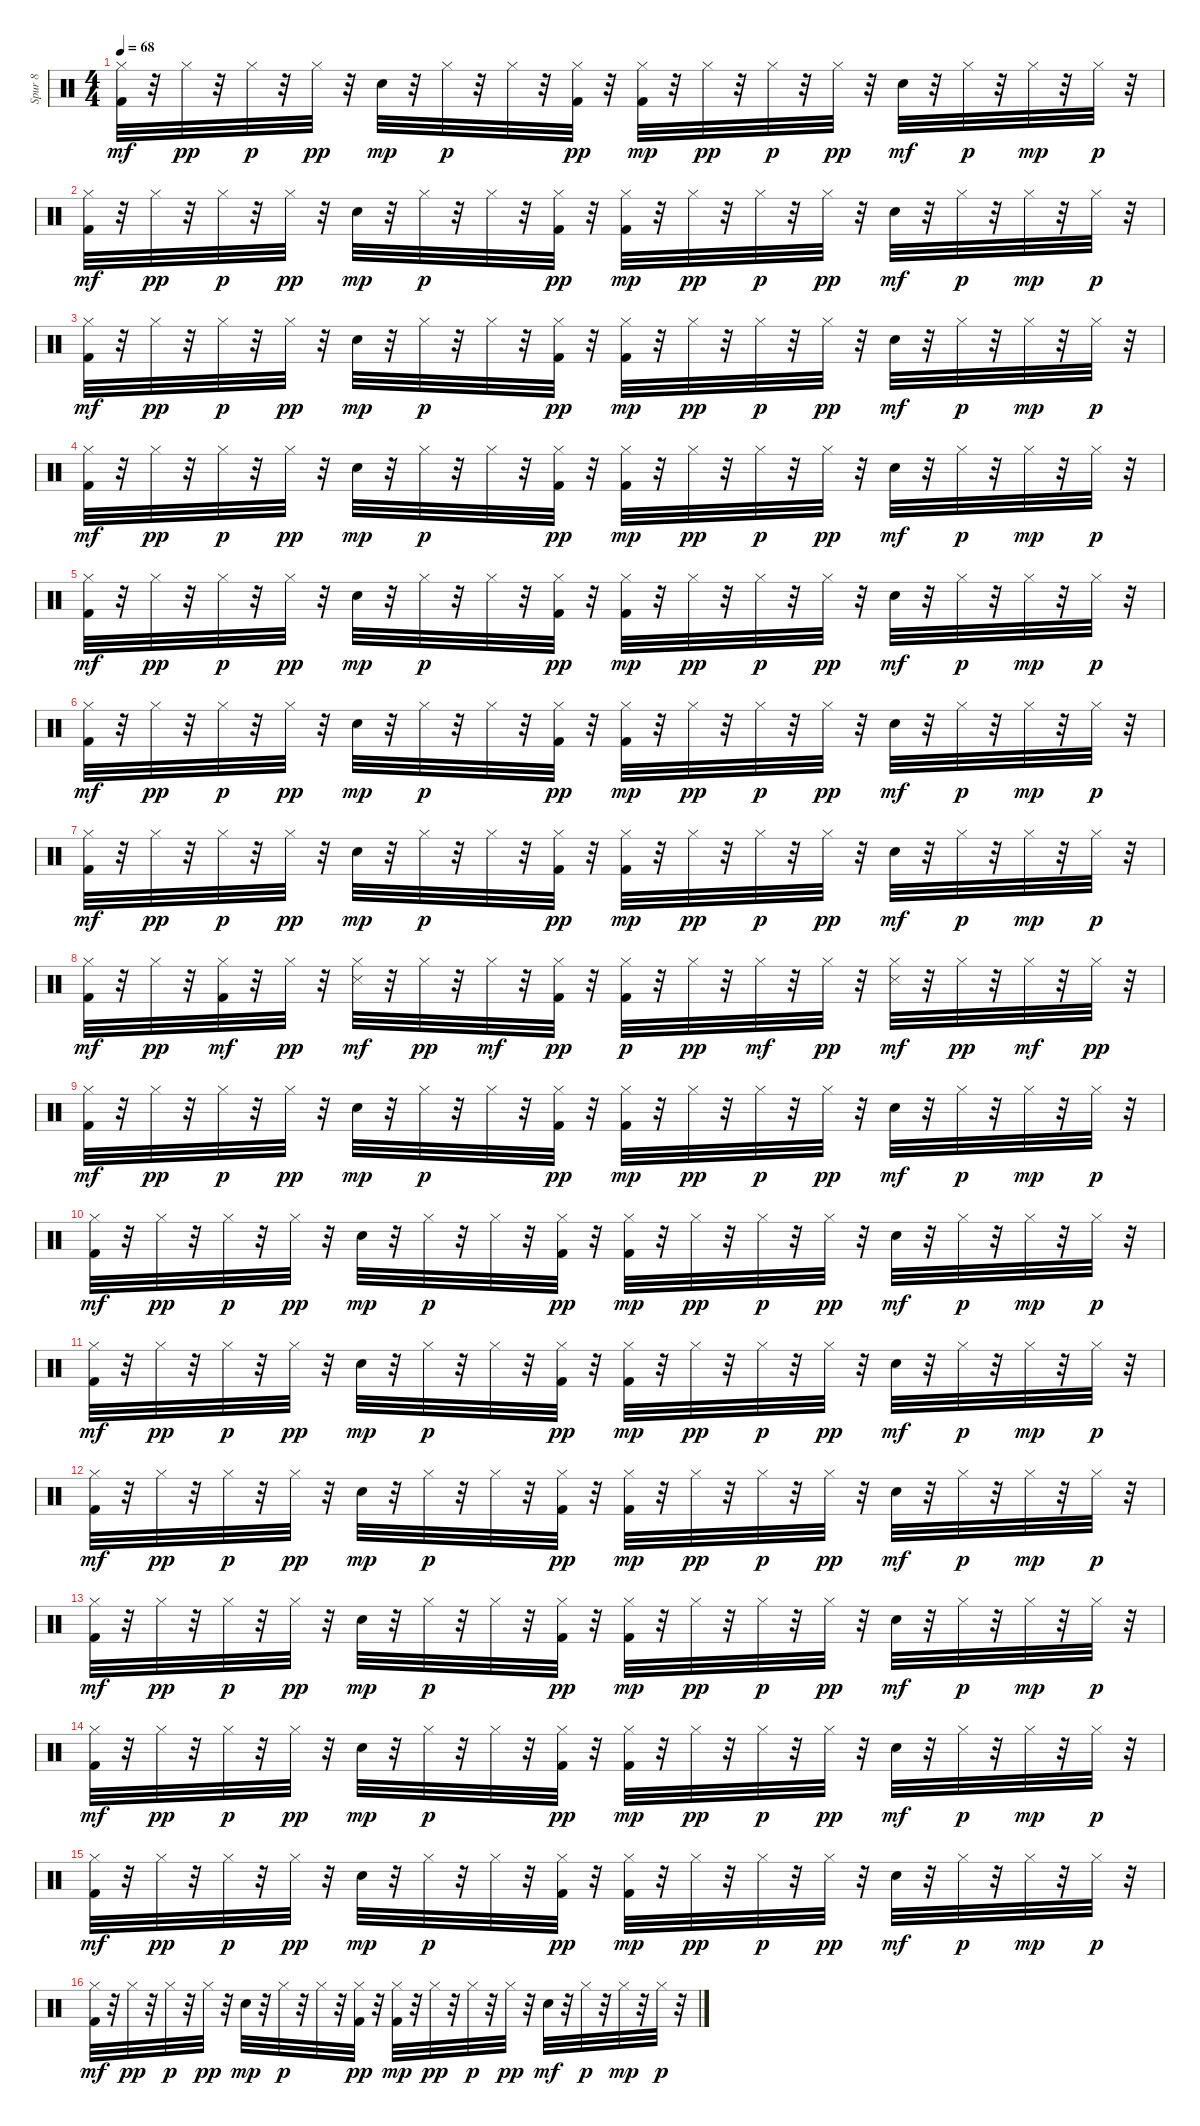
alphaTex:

\track ("Spur 8" "Spur 8") {instrument percussion}
\staff {score}
\articulation defaults
\ts (4 4)
\tempo 68
\clef neutral
\ks c
("Hi-Hat (closed)" "Kick (hit) 2").32{dy mf} r.32 "Hi-Hat (closed)".32{dy pp} r.32 "Hi-Hat (closed)".32{dy p} r.32 "Hi-Hat (closed)".32{dy pp} r.32 "Electric Snare (hit)".32{dy mp} r.32 "Hi-Hat (closed)".32{dy p} r.32 "Hi-Hat (closed)".32 r.32 ("Hi-Hat (closed)" "Kick (hit) 2").32{dy pp} r.32 ("Hi-Hat (closed)" "Kick (hit) 2").32{dy mp} r.32 "Hi-Hat (closed)".32{dy pp} r.32 "Hi-Hat (closed)".32{dy p} r.32 "Hi-Hat (closed)".32{dy pp} r.32 "Electric Snare (hit)".32{dy mf} r.32 "Hi-Hat (closed)".32{dy p} r.32 "Hi-Hat (closed)".32{dy mp} r.32 "Hi-Hat (closed)".32{dy p} r.32 |
("Hi-Hat (closed)" "Kick (hit) 2").32{dy mf} r.32 "Hi-Hat (closed)".32{dy pp} r.32 "Hi-Hat (closed)".32{dy p} r.32 "Hi-Hat (closed)".32{dy pp} r.32 "Electric Snare (hit)".32{dy mp} r.32 "Hi-Hat (closed)".32{dy p} r.32 "Hi-Hat (closed)".32 r.32 ("Hi-Hat (closed)" "Kick (hit) 2").32{dy pp} r.32 ("Hi-Hat (closed)" "Kick (hit) 2").32{dy mp} r.32 "Hi-Hat (closed)".32{dy pp} r.32 "Hi-Hat (closed)".32{dy p} r.32 "Hi-Hat (closed)".32{dy pp} r.32 "Electric Snare (hit)".32{dy mf} r.32 "Hi-Hat (closed)".32{dy p} r.32 "Hi-Hat (closed)".32{dy mp} r.32 "Hi-Hat (closed)".32{dy p} r.32 |
("Hi-Hat (closed)" "Kick (hit) 2").32{dy mf} r.32 "Hi-Hat (closed)".32{dy pp} r.32 "Hi-Hat (closed)".32{dy p} r.32 "Hi-Hat (closed)".32{dy pp} r.32 "Electric Snare (hit)".32{dy mp} r.32 "Hi-Hat (closed)".32{dy p} r.32 "Hi-Hat (closed)".32 r.32 ("Hi-Hat (closed)" "Kick (hit) 2").32{dy pp} r.32 ("Hi-Hat (closed)" "Kick (hit) 2").32{dy mp} r.32 "Hi-Hat (closed)".32{dy pp} r.32 "Hi-Hat (closed)".32{dy p} r.32 "Hi-Hat (closed)".32{dy pp} r.32 "Electric Snare (hit)".32{dy mf} r.32 "Hi-Hat (closed)".32{dy p} r.32 "Hi-Hat (closed)".32{dy mp} r.32 "Hi-Hat (closed)".32{dy p} r.32 |
("Hi-Hat (closed)" "Kick (hit) 2").32{dy mf} r.32 "Hi-Hat (closed)".32{dy pp} r.32 "Hi-Hat (closed)".32{dy p} r.32 "Hi-Hat (closed)".32{dy pp} r.32 "Electric Snare (hit)".32{dy mp} r.32 "Hi-Hat (closed)".32{dy p} r.32 "Hi-Hat (closed)".32 r.32 ("Hi-Hat (closed)" "Kick (hit) 2").32{dy pp} r.32 ("Hi-Hat (closed)" "Kick (hit) 2").32{dy mp} r.32 "Hi-Hat (closed)".32{dy pp} r.32 "Hi-Hat (closed)".32{dy p} r.32 "Hi-Hat (closed)".32{dy pp} r.32 "Electric Snare (hit)".32{dy mf} r.32 "Hi-Hat (closed)".32{dy p} r.32 "Hi-Hat (closed)".32{dy mp} r.32 "Hi-Hat (closed)".32{dy p} r.32 |
("Hi-Hat (closed)" "Kick (hit) 2").32{dy mf} r.32 "Hi-Hat (closed)".32{dy pp} r.32 "Hi-Hat (closed)".32{dy p} r.32 "Hi-Hat (closed)".32{dy pp} r.32 "Electric Snare (hit)".32{dy mp} r.32 "Hi-Hat (closed)".32{dy p} r.32 "Hi-Hat (closed)".32 r.32 ("Hi-Hat (closed)" "Kick (hit) 2").32{dy pp} r.32 ("Hi-Hat (closed)" "Kick (hit) 2").32{dy mp} r.32 "Hi-Hat (closed)".32{dy pp} r.32 "Hi-Hat (closed)".32{dy p} r.32 "Hi-Hat (closed)".32{dy pp} r.32 "Electric Snare (hit)".32{dy mf} r.32 "Hi-Hat (closed)".32{dy p} r.32 "Hi-Hat (closed)".32{dy mp} r.32 "Hi-Hat (closed)".32{dy p} r.32 |
("Hi-Hat (closed)" "Kick (hit) 2").32{dy mf} r.32 "Hi-Hat (closed)".32{dy pp} r.32 "Hi-Hat (closed)".32{dy p} r.32 "Hi-Hat (closed)".32{dy pp} r.32 "Electric Snare (hit)".32{dy mp} r.32 "Hi-Hat (closed)".32{dy p} r.32 "Hi-Hat (closed)".32 r.32 ("Hi-Hat (closed)" "Kick (hit) 2").32{dy pp} r.32 ("Hi-Hat (closed)" "Kick (hit) 2").32{dy mp} r.32 "Hi-Hat (closed)".32{dy pp} r.32 "Hi-Hat (closed)".32{dy p} r.32 "Hi-Hat (closed)".32{dy pp} r.32 "Electric Snare (hit)".32{dy mf} r.32 "Hi-Hat (closed)".32{dy p} r.32 "Hi-Hat (closed)".32{dy mp} r.32 "Hi-Hat (closed)".32{dy p} r.32 |
("Hi-Hat (closed)" "Kick (hit) 2").32{dy mf} r.32 "Hi-Hat (closed)".32{dy pp} r.32 "Hi-Hat (closed)".32{dy p} r.32 "Hi-Hat (closed)".32{dy pp} r.32 "Electric Snare (hit)".32{dy mp} r.32 "Hi-Hat (closed)".32{dy p} r.32 "Hi-Hat (closed)".32 r.32 ("Hi-Hat (closed)" "Kick (hit) 2").32{dy pp} r.32 ("Hi-Hat (closed)" "Kick (hit) 2").32{dy mp} r.32 "Hi-Hat (closed)".32{dy pp} r.32 "Hi-Hat (closed)".32{dy p} r.32 "Hi-Hat (closed)".32{dy pp} r.32 "Electric Snare (hit)".32{dy mf} r.32 "Hi-Hat (closed)".32{dy p} r.32 "Hi-Hat (closed)".32{dy mp} r.32 "Hi-Hat (closed)".32{dy p} r.32 |
("Kick (hit) 2" "Hi-Hat (closed)").32{dy mf} r.32 "Hi-Hat (closed)".32{dy pp} r.32 ("Kick (hit) 2" "Hi-Hat (closed)").32{dy mf} r.32 "Hi-Hat (closed)".32{dy pp} r.32 ("Snare (side stick) 3" "Hi-Hat (closed)").32{dy mf} r.32 "Hi-Hat (closed)".32{dy pp} r.32 "Hi-Hat (closed)".32{dy mf} r.32 ("Kick (hit) 2" "Hi-Hat (closed)").32{dy pp} r.32 ("Kick (hit) 2" "Hi-Hat (closed)").32{dy p} r.32 "Hi-Hat (closed)".32{dy pp} r.32 "Hi-Hat (closed)".32{dy mf} r.32 "Hi-Hat (closed)".32{dy pp} r.32 ("Snare (side stick) 3" "Hi-Hat (closed)").32{dy mf} r.32 "Hi-Hat (closed)".32{dy pp} r.32 "Hi-Hat (closed)".32{dy mf} r.32 "Hi-Hat (closed)".32{dy pp} r.32 |
("Hi-Hat (closed)" "Kick (hit) 2").32{dy mf} r.32 "Hi-Hat (closed)".32{dy pp} r.32 "Hi-Hat (closed)".32{dy p} r.32 "Hi-Hat (closed)".32{dy pp} r.32 "Electric Snare (hit)".32{dy mp} r.32 "Hi-Hat (closed)".32{dy p} r.32 "Hi-Hat (closed)".32 r.32 ("Hi-Hat (closed)" "Kick (hit) 2").32{dy pp} r.32 ("Hi-Hat (closed)" "Kick (hit) 2").32{dy mp} r.32 "Hi-Hat (closed)".32{dy pp} r.32 "Hi-Hat (closed)".32{dy p} r.32 "Hi-Hat (closed)".32{dy pp} r.32 "Electric Snare (hit)".32{dy mf} r.32 "Hi-Hat (closed)".32{dy p} r.32 "Hi-Hat (closed)".32{dy mp} r.32 "Hi-Hat (closed)".32{dy p} r.32 |
("Hi-Hat (closed)" "Kick (hit) 2").32{dy mf} r.32 "Hi-Hat (closed)".32{dy pp} r.32 "Hi-Hat (closed)".32{dy p} r.32 "Hi-Hat (closed)".32{dy pp} r.32 "Electric Snare (hit)".32{dy mp} r.32 "Hi-Hat (closed)".32{dy p} r.32 "Hi-Hat (closed)".32 r.32 ("Hi-Hat (closed)" "Kick (hit) 2").32{dy pp} r.32 ("Hi-Hat (closed)" "Kick (hit) 2").32{dy mp} r.32 "Hi-Hat (closed)".32{dy pp} r.32 "Hi-Hat (closed)".32{dy p} r.32 "Hi-Hat (closed)".32{dy pp} r.32 "Electric Snare (hit)".32{dy mf} r.32 "Hi-Hat (closed)".32{dy p} r.32 "Hi-Hat (closed)".32{dy mp} r.32 "Hi-Hat (closed)".32{dy p} r.32 |
("Hi-Hat (closed)" "Kick (hit) 2").32{dy mf} r.32 "Hi-Hat (closed)".32{dy pp} r.32 "Hi-Hat (closed)".32{dy p} r.32 "Hi-Hat (closed)".32{dy pp} r.32 "Electric Snare (hit)".32{dy mp} r.32 "Hi-Hat (closed)".32{dy p} r.32 "Hi-Hat (closed)".32 r.32 ("Hi-Hat (closed)" "Kick (hit) 2").32{dy pp} r.32 ("Hi-Hat (closed)" "Kick (hit) 2").32{dy mp} r.32 "Hi-Hat (closed)".32{dy pp} r.32 "Hi-Hat (closed)".32{dy p} r.32 "Hi-Hat (closed)".32{dy pp} r.32 "Electric Snare (hit)".32{dy mf} r.32 "Hi-Hat (closed)".32{dy p} r.32 "Hi-Hat (closed)".32{dy mp} r.32 "Hi-Hat (closed)".32{dy p} r.32 |
("Hi-Hat (closed)" "Kick (hit) 2").32{dy mf} r.32 "Hi-Hat (closed)".32{dy pp} r.32 "Hi-Hat (closed)".32{dy p} r.32 "Hi-Hat (closed)".32{dy pp} r.32 "Electric Snare (hit)".32{dy mp} r.32 "Hi-Hat (closed)".32{dy p} r.32 "Hi-Hat (closed)".32 r.32 ("Hi-Hat (closed)" "Kick (hit) 2").32{dy pp} r.32 ("Hi-Hat (closed)" "Kick (hit) 2").32{dy mp} r.32 "Hi-Hat (closed)".32{dy pp} r.32 "Hi-Hat (closed)".32{dy p} r.32 "Hi-Hat (closed)".32{dy pp} r.32 "Electric Snare (hit)".32{dy mf} r.32 "Hi-Hat (closed)".32{dy p} r.32 "Hi-Hat (closed)".32{dy mp} r.32 "Hi-Hat (closed)".32{dy p} r.32 |
("Hi-Hat (closed)" "Kick (hit) 2").32{dy mf} r.32 "Hi-Hat (closed)".32{dy pp} r.32 "Hi-Hat (closed)".32{dy p} r.32 "Hi-Hat (closed)".32{dy pp} r.32 "Electric Snare (hit)".32{dy mp} r.32 "Hi-Hat (closed)".32{dy p} r.32 "Hi-Hat (closed)".32 r.32 ("Hi-Hat (closed)" "Kick (hit) 2").32{dy pp} r.32 ("Hi-Hat (closed)" "Kick (hit) 2").32{dy mp} r.32 "Hi-Hat (closed)".32{dy pp} r.32 "Hi-Hat (closed)".32{dy p} r.32 "Hi-Hat (closed)".32{dy pp} r.32 "Electric Snare (hit)".32{dy mf} r.32 "Hi-Hat (closed)".32{dy p} r.32 "Hi-Hat (closed)".32{dy mp} r.32 "Hi-Hat (closed)".32{dy p} r.32 |
("Hi-Hat (closed)" "Kick (hit) 2").32{dy mf} r.32 "Hi-Hat (closed)".32{dy pp} r.32 "Hi-Hat (closed)".32{dy p} r.32 "Hi-Hat (closed)".32{dy pp} r.32 "Electric Snare (hit)".32{dy mp} r.32 "Hi-Hat (closed)".32{dy p} r.32 "Hi-Hat (closed)".32 r.32 ("Hi-Hat (closed)" "Kick (hit) 2").32{dy pp} r.32 ("Hi-Hat (closed)" "Kick (hit) 2").32{dy mp} r.32 "Hi-Hat (closed)".32{dy pp} r.32 "Hi-Hat (closed)".32{dy p} r.32 "Hi-Hat (closed)".32{dy pp} r.32 "Electric Snare (hit)".32{dy mf} r.32 "Hi-Hat (closed)".32{dy p} r.32 "Hi-Hat (closed)".32{dy mp} r.32 "Hi-Hat (closed)".32{dy p} r.32 |
("Hi-Hat (closed)" "Kick (hit) 2").32{dy mf} r.32 "Hi-Hat (closed)".32{dy pp} r.32 "Hi-Hat (closed)".32{dy p} r.32 "Hi-Hat (closed)".32{dy pp} r.32 "Electric Snare (hit)".32{dy mp} r.32 "Hi-Hat (closed)".32{dy p} r.32 "Hi-Hat (closed)".32 r.32 ("Hi-Hat (closed)" "Kick (hit) 2").32{dy pp} r.32 ("Hi-Hat (closed)" "Kick (hit) 2").32{dy mp} r.32 "Hi-Hat (closed)".32{dy pp} r.32 "Hi-Hat (closed)".32{dy p} r.32 "Hi-Hat (closed)".32{dy pp} r.32 "Electric Snare (hit)".32{dy mf} r.32 "Hi-Hat (closed)".32{dy p} r.32 "Hi-Hat (closed)".32{dy mp} r.32 "Hi-Hat (closed)".32{dy p} r.32 |
("Hi-Hat (closed)" "Kick (hit) 2").32{dy mf} r.32 "Hi-Hat (closed)".32{dy pp} r.32 "Hi-Hat (closed)".32{dy p} r.32 "Hi-Hat (closed)".32{dy pp} r.32 "Electric Snare (hit)".32{dy mp} r.32 "Hi-Hat (closed)".32{dy p} r.32 "Hi-Hat (closed)".32 r.32 ("Hi-Hat (closed)" "Kick (hit) 2").32{dy pp} r.32 ("Hi-Hat (closed)" "Kick (hit) 2").32{dy mp} r.32 "Hi-Hat (closed)".32{dy pp} r.32 "Hi-Hat (closed)".32{dy p} r.32 "Hi-Hat (closed)".32{dy pp} r.32 "Electric Snare (hit)".32{dy mf} r.32 "Hi-Hat (closed)".32{dy p} r.32 "Hi-Hat (closed)".32{dy mp} r.32 "Hi-Hat (closed)".32{dy p} r.32
